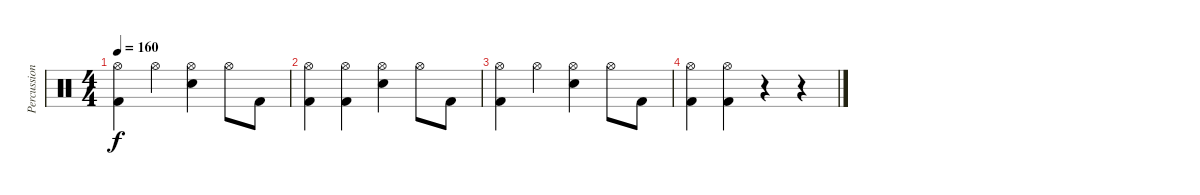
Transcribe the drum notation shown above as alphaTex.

\track ("Percussioni" "Percussion") {instrument percussion}
\staff {score}
\articulation defaults
\ts (4 4)
\tempo 160
\clef neutral
\ks c
("Hi-Hat (open)" "Kick (hit) 2").4{dy f} "Hi-Hat (open)".4 ("Hi-Hat (open)" "Snare (hit) 2").4 "Hi-Hat (open)".8 "Kick (hit) 2".8 |
("Hi-Hat (open)" "Kick (hit) 2").4 ("Hi-Hat (open)" "Kick (hit) 2").4 ("Hi-Hat (open)" "Snare (hit) 2").4 "Hi-Hat (open)".8 "Kick (hit) 2".8 |
("Hi-Hat (open)" "Kick (hit) 2").4 "Hi-Hat (open)".4 ("Hi-Hat (open)" "Snare (hit) 2").4 "Hi-Hat (open)".8 "Kick (hit) 2".8 |
("Hi-Hat (open)" "Kick (hit) 2").4 ("Hi-Hat (open)" "Kick (hit) 2").4 r.4 r.4
